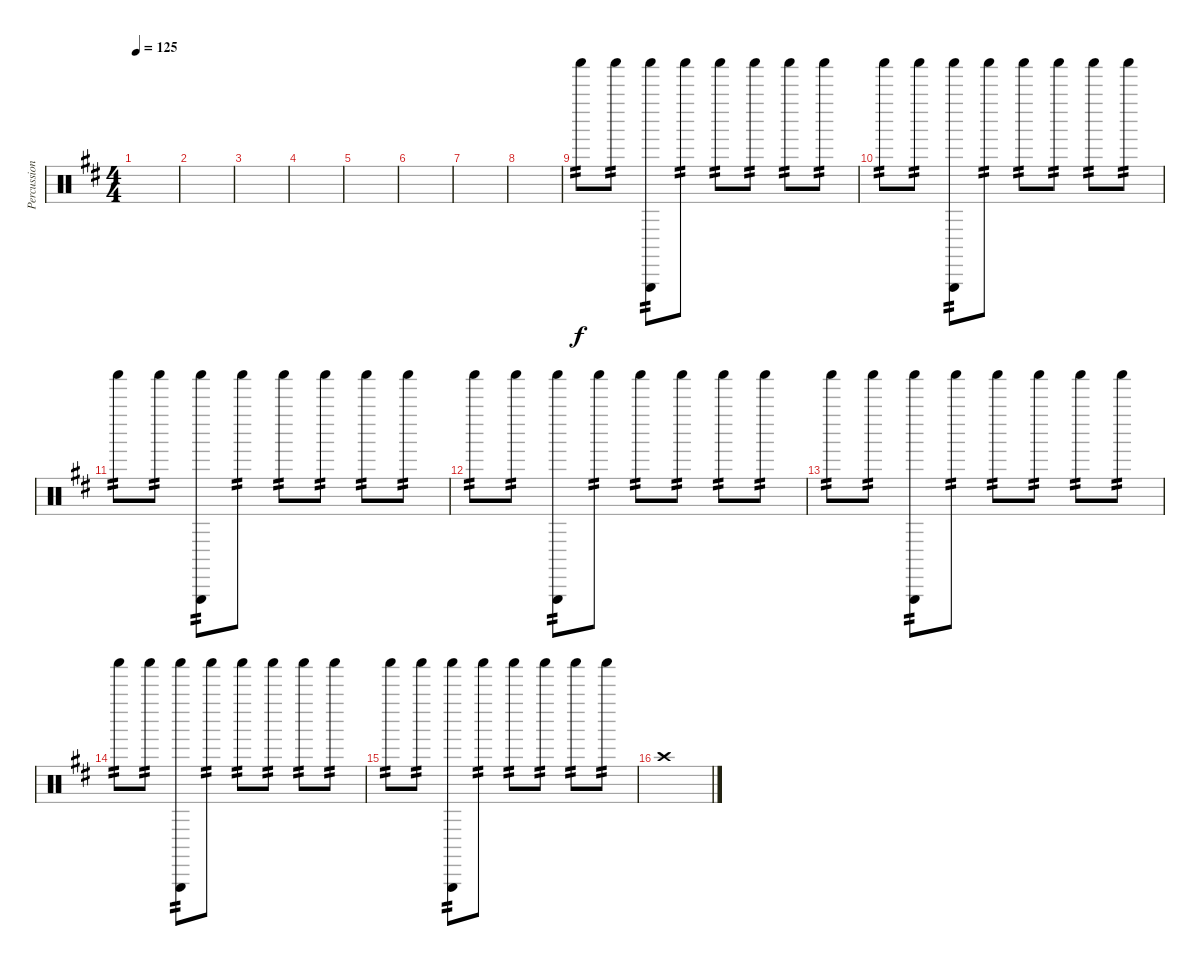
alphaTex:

\track ("Percussion" "Percussion") {instrument percussion}
\staff {score}
\articulation defaults
\ts (4 4)
\tempo 125
\clef neutral
\ks d
|
|
|
|
|
|
|
|
"Shaker (hit)".8{tp 2} "Shaker (hit)".8{tp 2} ("Shaker (hit)" "Triangle (hit)").8{tp 2} "Shaker (hit)".8{tp 2} "Shaker (hit)".8{tp 2} "Shaker (hit)".8{tp 2} "Shaker (hit)".8{tp 2} "Shaker (hit)".8{tp 2} |
"Shaker (hit)".8{tp 2} "Shaker (hit)".8{tp 2} ("Shaker (hit)" "Triangle (hit)").8{tp 2} "Shaker (hit)".8{tp 2} "Shaker (hit)".8{tp 2} "Shaker (hit)".8{tp 2} "Shaker (hit)".8{tp 2} "Shaker (hit)".8{tp 2} |
"Shaker (hit)".8{tp 2} "Shaker (hit)".8{tp 2} ("Shaker (hit)" "Triangle (hit)").8{tp 2} "Shaker (hit)".8{tp 2} "Shaker (hit)".8{tp 2} "Shaker (hit)".8{tp 2} "Shaker (hit)".8{tp 2} "Shaker (hit)".8{tp 2} |
"Shaker (hit)".8{tp 2} "Shaker (hit)".8{tp 2} ("Shaker (hit)" "Triangle (hit)").8{tp 2} "Shaker (hit)".8{tp 2} "Shaker (hit)".8{tp 2} "Shaker (hit)".8{tp 2} "Shaker (hit)".8{tp 2} "Shaker (hit)".8{tp 2} |
"Shaker (hit)".8{tp 2} "Shaker (hit)".8{tp 2} ("Shaker (hit)" "Triangle (hit)").8{tp 2} "Shaker (hit)".8{tp 2} "Shaker (hit)".8{tp 2} "Shaker (hit)".8{tp 2} "Shaker (hit)".8{tp 2} "Shaker (hit)".8{tp 2} |
"Shaker (hit)".8{tp 2} "Shaker (hit)".8{tp 2} ("Shaker (hit)" "Triangle (hit)").8{tp 2} "Shaker (hit)".8{tp 2} "Shaker (hit)".8{tp 2} "Shaker (hit)".8{tp 2} "Shaker (hit)".8{tp 2} "Shaker (hit)".8{tp 2} |
"Shaker (hit)".8{tp 2} "Shaker (hit)".8{tp 2} ("Shaker (hit)" "Triangle (hit)").8{tp 2} "Shaker (hit)".8{tp 2} "Shaker (hit)".8{tp 2} "Shaker (hit)".8{tp 2} "Shaker (hit)".8{tp 2} "Shaker (hit)".8{tp 2} |
"Crash high (hit)".1
